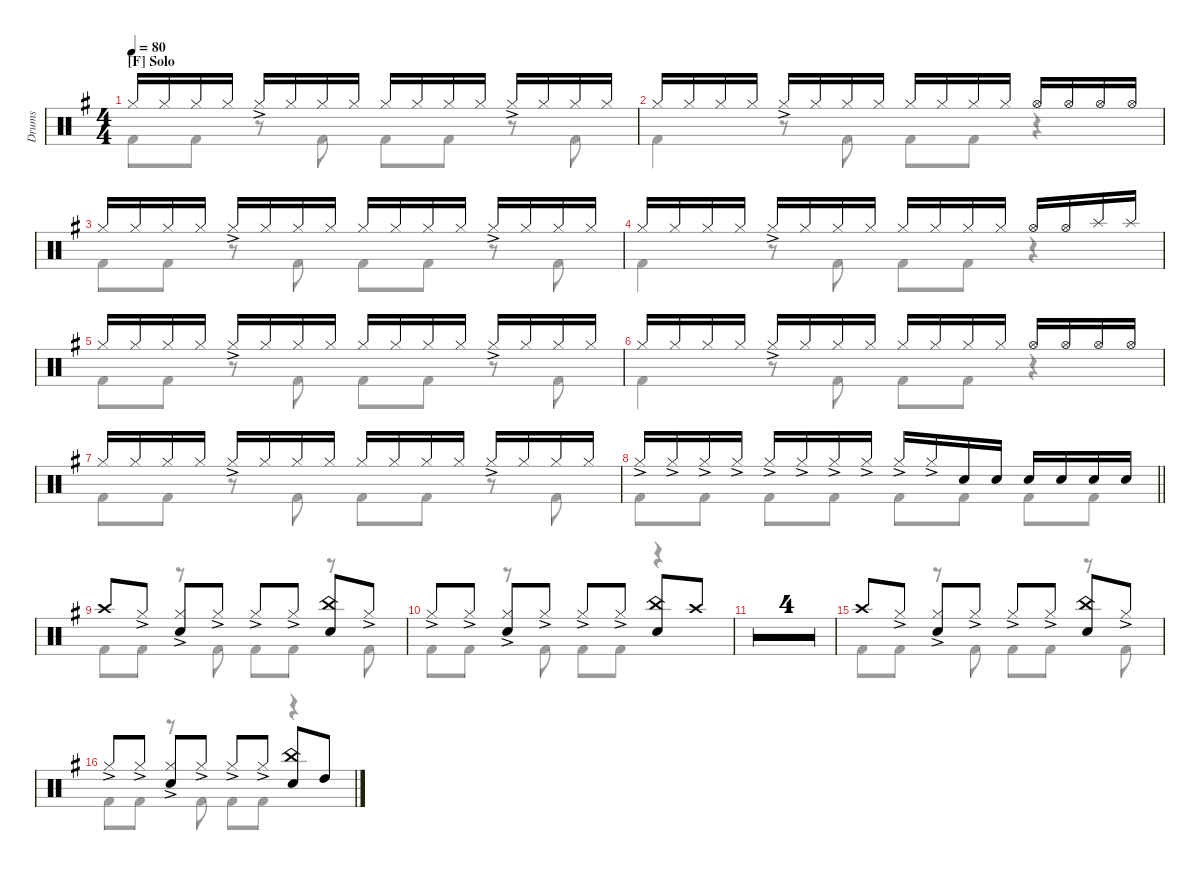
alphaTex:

\hideDynamics
\bracketExtendMode nobrackets
\otherSystemsTrackNameOrientation horizontal
\track ("Drums" "Drums") {defaultSystemsLayout 4 multiBarRest instrument percussion}
\staff {score}
\articulation defaults
\voice
\ts (4 4)
\section ("F" "Solo")
\tempo 80
\clef neutral
\ks g "Hi-Hat (closed)"{acc forcenatural}.16{dy f beam Up} "Hi-Hat (closed)"{acc forcenatural}.16{beam Up} "Hi-Hat (closed)"{acc forcenatural}.16{beam Up} "Hi-Hat (closed)"{acc forcenatural}.16{beam Up} "Hi-Hat (closed)"{ac acc forcenatural}.16{beam Up} "Hi-Hat (closed)"{acc forcenatural}.16{beam Up} "Hi-Hat (closed)"{acc forcenatural}.16{beam Up} "Hi-Hat (closed)"{acc forcenatural}.16{beam Up} "Hi-Hat (closed)"{acc forcenatural}.16{beam Up} "Hi-Hat (closed)"{acc forcenatural}.16{beam Up} "Hi-Hat (closed)"{acc forcenatural}.16{beam Up} "Hi-Hat (closed)"{acc forcenatural}.16{beam Up} "Hi-Hat (closed)"{ac acc forcenatural}.16{beam Up} "Hi-Hat (closed)"{acc forcenatural}.16{beam Up} "Hi-Hat (closed)"{acc forcenatural}.16{beam Up} "Hi-Hat (closed)"{acc forcenatural}.16{beam Up}
|
"Hi-Hat (closed)"{acc forcenatural}.16{beam Up} "Hi-Hat (closed)"{acc forcenatural}.16{beam Up} "Hi-Hat (closed)"{acc forcenatural}.16{beam Up} "Hi-Hat (closed)"{acc forcenatural}.16{beam Up} "Hi-Hat (closed)"{ac acc forcenatural}.16{beam Up} "Hi-Hat (closed)"{acc forcenatural}.16{beam Up} "Hi-Hat (closed)"{acc forcenatural}.16{beam Up} "Hi-Hat (closed)"{acc forcenatural}.16{beam Up} "Hi-Hat (closed)"{acc forcenatural}.16{beam Up} "Hi-Hat (closed)"{acc forcenatural}.16{beam Up} "Hi-Hat (closed)"{acc forcenatural}.16{beam Up} "Hi-Hat (closed)"{acc forcenatural}.16{beam Up} "Hi-Hat (open)"{acc forcenatural}.16{beam Up} "Hi-Hat (open)"{acc forcenatural}.16{beam Up} "Hi-Hat (open)"{acc forcenatural}.16{beam Up} "Hi-Hat (open)"{acc forcenatural}.16{beam Up} |
"Hi-Hat (closed)"{acc forcenatural}.16{beam Up} "Hi-Hat (closed)"{acc forcenatural}.16{beam Up} "Hi-Hat (closed)"{acc forcenatural}.16{beam Up} "Hi-Hat (closed)"{acc forcenatural}.16{beam Up} "Hi-Hat (closed)"{ac acc forcenatural}.16{beam Up} "Hi-Hat (closed)"{acc forcenatural}.16{beam Up} "Hi-Hat (closed)"{acc forcenatural}.16{beam Up} "Hi-Hat (closed)"{acc forcenatural}.16{beam Up} "Hi-Hat (closed)"{acc forcenatural}.16{beam Up} "Hi-Hat (closed)"{acc forcenatural}.16{beam Up} "Hi-Hat (closed)"{acc forcenatural}.16{beam Up} "Hi-Hat (closed)"{acc forcenatural}.16{beam Up} "Hi-Hat (closed)"{ac acc forcenatural}.16{beam Up} "Hi-Hat (closed)"{acc forcenatural}.16{beam Up} "Hi-Hat (closed)"{acc forcenatural}.16{beam Up} "Hi-Hat (closed)"{acc forcenatural}.16{beam Up} |
"Hi-Hat (closed)"{acc forcenatural}.16{beam Up} "Hi-Hat (closed)"{acc forcenatural}.16{beam Up} "Hi-Hat (closed)"{acc forcenatural}.16{beam Up} "Hi-Hat (closed)"{acc forcenatural}.16{beam Up} "Hi-Hat (closed)"{ac acc forcenatural}.16{beam Up} "Hi-Hat (closed)"{acc forcenatural}.16{beam Up} "Hi-Hat (closed)"{acc forcenatural}.16{beam Up} "Hi-Hat (closed)"{acc forcenatural}.16{beam Up} "Hi-Hat (closed)"{acc forcenatural}.16{beam Up} "Hi-Hat (closed)"{acc forcenatural}.16{beam Up} "Hi-Hat (closed)"{acc forcenatural}.16{beam Up} "Hi-Hat (closed)"{acc forcenatural}.16{beam Up} "Hi-Hat (open)"{acc forcenatural}.16{beam Up} "Hi-Hat (open)"{acc forcenatural}.16{beam Up} "Splash (hit)"{acc forcenatural}.16{beam Up} "Splash (hit)"{acc forcenatural}.16{beam Up} |
"Hi-Hat (closed)"{acc forcenatural}.16{beam Up} "Hi-Hat (closed)"{acc forcenatural}.16{beam Up} "Hi-Hat (closed)"{acc forcenatural}.16{beam Up} "Hi-Hat (closed)"{acc forcenatural}.16{beam Up} "Hi-Hat (closed)"{ac acc forcenatural}.16{beam Up} "Hi-Hat (closed)"{acc forcenatural}.16{beam Up} "Hi-Hat (closed)"{acc forcenatural}.16{beam Up} "Hi-Hat (closed)"{acc forcenatural}.16{beam Up} "Hi-Hat (closed)"{acc forcenatural}.16{beam Up} "Hi-Hat (closed)"{acc forcenatural}.16{beam Up} "Hi-Hat (closed)"{acc forcenatural}.16{beam Up} "Hi-Hat (closed)"{acc forcenatural}.16{beam Up} "Hi-Hat (closed)"{ac acc forcenatural}.16{beam Up} "Hi-Hat (closed)"{acc forcenatural}.16{beam Up} "Hi-Hat (closed)"{acc forcenatural}.16{beam Up} "Hi-Hat (closed)"{acc forcenatural}.16{beam Up} |
"Hi-Hat (closed)"{acc forcenatural}.16{beam Up} "Hi-Hat (closed)"{acc forcenatural}.16{beam Up} "Hi-Hat (closed)"{acc forcenatural}.16{beam Up} "Hi-Hat (closed)"{acc forcenatural}.16{beam Up} "Hi-Hat (closed)"{ac acc forcenatural}.16{beam Up} "Hi-Hat (closed)"{acc forcenatural}.16{beam Up} "Hi-Hat (closed)"{acc forcenatural}.16{beam Up} "Hi-Hat (closed)"{acc forcenatural}.16{beam Up} "Hi-Hat (closed)"{acc forcenatural}.16{beam Up} "Hi-Hat (closed)"{acc forcenatural}.16{beam Up} "Hi-Hat (closed)"{acc forcenatural}.16{beam Up} "Hi-Hat (closed)"{acc forcenatural}.16{beam Up} "Hi-Hat (open)"{acc forcenatural}.16{beam Up} "Hi-Hat (open)"{acc forcenatural}.16{beam Up} "Hi-Hat (open)"{acc forcenatural}.16{beam Up} "Hi-Hat (open)"{acc forcenatural}.16{beam Up} |
"Hi-Hat (closed)"{acc forcenatural}.16{beam Up} "Hi-Hat (closed)"{acc forcenatural}.16{beam Up} "Hi-Hat (closed)"{acc forcenatural}.16{beam Up} "Hi-Hat (closed)"{acc forcenatural}.16{beam Up} "Hi-Hat (closed)"{ac acc forcenatural}.16{beam Up} "Hi-Hat (closed)"{acc forcenatural}.16{beam Up} "Hi-Hat (closed)"{acc forcenatural}.16{beam Up} "Hi-Hat (closed)"{acc forcenatural}.16{beam Up} "Hi-Hat (closed)"{acc forcenatural}.16{beam Up} "Hi-Hat (closed)"{acc forcenatural}.16{beam Up} "Hi-Hat (closed)"{acc forcenatural}.16{beam Up} "Hi-Hat (closed)"{acc forcenatural}.16{beam Up} "Hi-Hat (closed)"{ac acc forcenatural}.16{beam Up} "Hi-Hat (closed)"{acc forcenatural}.16{beam Up} "Hi-Hat (closed)"{acc forcenatural}.16{beam Up} "Hi-Hat (closed)"{acc forcenatural}.16{beam Up} |
\barLineRight lightlight "Hi-Hat (closed)"{ac acc forcenatural}.16{beam Up} "Hi-Hat (closed)"{ac acc forcenatural}.16{beam Up} "Hi-Hat (closed)"{ac acc forcenatural}.16{beam Up} "Hi-Hat (closed)"{ac acc forcenatural}.16{beam Up} "Hi-Hat (closed)"{ac acc forcenatural}.16{beam Up} "Hi-Hat (closed)"{ac acc forcenatural}.16{beam Up} "Hi-Hat (closed)"{ac acc forcenatural}.16{beam Up} "Hi-Hat (closed)"{ac acc forcenatural}.16{beam Up} "Hi-Hat (closed)"{ac acc forcenatural}.16{beam Up} "Hi-Hat (closed)"{ac acc forcenatural}.16{beam Up} "Snare (hit) 2"{acc forcenatural}.16{beam Up} "Snare (hit) 2"{acc forcenatural}.16{beam Up} "Snare (hit) 2"{acc forcenatural}.16{beam Up} "Snare (hit) 2"{acc forcenatural}.16{beam Up} "Snare (hit) 2"{acc forcenatural}.16{beam Up} "Snare (hit) 2"{acc forcenatural}.16{beam Up}
|
"Crash high (hit)"{acc forcenatural}.8{beam Up} "Hi-Hat (closed)"{ac acc forcenatural}.8{beam Up} ("Hi-Hat (closed)"{ac acc forcenatural} "Snare (hit) 2"{acc forcenatural}).8{beam Up} "Hi-Hat (closed)"{ac acc forcenatural}.8{beam Up} "Hi-Hat (closed)"{ac acc forcenatural}.8{beam Up} "Hi-Hat (closed)"{ac acc forcenatural}.8{beam Up} ("China (hit)"{acc forcenatural} "Snare (hit) 2"{acc forcenatural}).8{beam Up} "Hi-Hat (closed)"{ac acc forcenatural}.8{beam Up} |
"Hi-Hat (closed)"{ac acc forcenatural}.8{beam Up} "Hi-Hat (closed)"{ac acc forcenatural}.8{beam Up} ("Hi-Hat (closed)"{ac acc forcenatural} "Snare (hit) 2"{acc forcenatural}).8{beam Up} "Hi-Hat (closed)"{ac acc forcenatural}.8{beam Up} "Hi-Hat (closed)"{ac acc forcenatural}.8{beam Up} "Hi-Hat (closed)"{ac acc forcenatural}.8{beam Up} ("China (hit)"{acc forcenatural} "Snare (hit) 2"{acc forcenatural}).8{beam Up} "Crash high (hit)"{acc forcenatural}.8{beam Up} |
\simile firstofdouble
|
\simile secondofdouble
|
\simile firstofdouble
|
\simile secondofdouble
|
\simile none "Crash high (hit)"{acc forcenatural}.8{beam Up} "Hi-Hat (closed)"{ac acc forcenatural}.8{beam Up}
("Hi-Hat (closed)"{ac acc forcenatural} "Snare (hit) 2"{acc forcenatural}).8{beam Up} "Hi-Hat (closed)"{ac acc forcenatural}.8{beam Up} "Hi-Hat (closed)"{ac acc forcenatural}.8{beam Up} "Hi-Hat (closed)"{ac acc forcenatural}.8{beam Up} ("China (hit)"{acc forcenatural} "Snare (hit) 2"{acc forcenatural}).8{beam Up} "Hi-Hat (closed)"{ac acc forcenatural}.8{beam Up} |
"Hi-Hat (closed)"{ac acc forcenatural}.8{beam Up} "Hi-Hat (closed)"{ac acc forcenatural}.8{beam Up} ("Hi-Hat (closed)"{ac acc forcenatural} "Snare (hit) 2"{acc forcenatural}).8{beam Up} "Hi-Hat (closed)"{ac acc forcenatural}.8{beam Up} "Hi-Hat (closed)"{ac acc forcenatural}.8{beam Up} "Hi-Hat (closed)"{ac acc forcenatural}.8{beam Up} ("China (hit)"{acc forcenatural} "Snare (hit) 2"{acc forcenatural}).8{beam Up} "High Tom (hit)"{acc forcenatural}.8{beam Up}
\voice
\clef neutral
\ottava regular
\simile none
\ks g "Kick (hit) 2"{acc forcenatural}.8{dy mf beam Down} "Kick (hit) 2"{acc forcenatural}.8{beam Down}
r.8{beam Down} "Kick (hit) 2"{acc forcenatural}.8{beam Down} "Kick (hit) 2"{acc forcenatural}.8{beam Down} "Kick (hit) 2"{acc forcenatural}.8{beam Down} r.8{beam Down} "Kick (hit) 2"{acc forcenatural}.8{beam Down} |
"Kick (hit) 2"{acc forcenatural}.4{beam Down} r.8{beam Down} "Kick (hit) 2"{acc forcenatural}.8{beam Down} "Kick (hit) 2"{acc forcenatural}.8{beam Down} "Kick (hit) 2"{acc forcenatural}.8{beam Down} r.4{beam Down} |
"Kick (hit) 2"{acc forcenatural}.8{beam Down} "Kick (hit) 2"{acc forcenatural}.8{beam Down} r.8{beam Down} "Kick (hit) 2"{acc forcenatural}.8{beam Down} "Kick (hit) 2"{acc forcenatural}.8{beam Down} "Kick (hit) 2"{acc forcenatural}.8{beam Down} r.8{beam Down} "Kick (hit) 2"{acc forcenatural}.8{beam Down} |
"Kick (hit) 2"{acc forcenatural}.4{beam Down} r.8{beam Down} "Kick (hit) 2"{acc forcenatural}.8{beam Down} "Kick (hit) 2"{acc forcenatural}.8{beam Down} "Kick (hit) 2"{acc forcenatural}.8{beam Down} r.4{beam Down} |
"Kick (hit) 2"{acc forcenatural}.8{beam Down} "Kick (hit) 2"{acc forcenatural}.8{beam Down} r.8{beam Down} "Kick (hit) 2"{acc forcenatural}.8{beam Down} "Kick (hit) 2"{acc forcenatural}.8{beam Down} "Kick (hit) 2"{acc forcenatural}.8{beam Down} r.8{beam Down} "Kick (hit) 2"{acc forcenatural}.8{beam Down} |
"Kick (hit) 2"{acc forcenatural}.4{beam Down} r.8{beam Down} "Kick (hit) 2"{acc forcenatural}.8{beam Down} "Kick (hit) 2"{acc forcenatural}.8{beam Down} "Kick (hit) 2"{acc forcenatural}.8{beam Down} r.4{beam Down} |
"Kick (hit) 2"{acc forcenatural}.8{beam Down} "Kick (hit) 2"{acc forcenatural}.8{beam Down} r.8{beam Down} "Kick (hit) 2"{acc forcenatural}.8{beam Down} "Kick (hit) 2"{acc forcenatural}.8{beam Down} "Kick (hit) 2"{acc forcenatural}.8{beam Down} r.8{beam Down} "Kick (hit) 2"{acc forcenatural}.8{beam Down} |
\barLineRight lightlight "Kick (hit) 2"{acc forcenatural}.8{beam Down} "Kick (hit) 2"{acc forcenatural}.8{beam Down} "Kick (hit) 2"{acc forcenatural}.8{beam Down} "Kick (hit) 2"{acc forcenatural}.8{beam Down} "Kick (hit) 2"{acc forcenatural}.8{beam Down} "Kick (hit) 2"{acc forcenatural}.8{beam Down} "Kick (hit) 2"{acc forcenatural}.8{beam Down} "Kick (hit) 2"{acc forcenatural}.8{beam Down}
|
"Kick (hit) 2"{acc forcenatural}.8{beam Down} "Kick (hit) 2"{acc forcenatural}.8{beam Down} r.8{beam Down} "Kick (hit) 2"{acc forcenatural}.8{beam Down} "Kick (hit) 2"{acc forcenatural}.8{beam Down} "Kick (hit) 2"{acc forcenatural}.8{beam Down} r.8{beam Down} "Kick (hit) 2"{acc forcenatural}.8{beam Down} |
"Kick (hit) 2"{acc forcenatural}.8{beam Down} "Kick (hit) 2"{acc forcenatural}.8{beam Down} r.8{beam Down} "Kick (hit) 2"{acc forcenatural}.8{beam Down} "Kick (hit) 2"{acc forcenatural}.8{beam Down} "Kick (hit) 2"{acc forcenatural}.8{beam Down} r.4{beam Down} |
\simile firstofdouble
|
\simile secondofdouble
|
\simile firstofdouble
|
\simile secondofdouble
|
\simile none "Kick (hit) 2"{acc forcenatural}.8{beam Down} "Kick (hit) 2"{acc forcenatural}.8{beam Down}
r.8{beam Down} "Kick (hit) 2"{acc forcenatural}.8{beam Down} "Kick (hit) 2"{acc forcenatural}.8{beam Down} "Kick (hit) 2"{acc forcenatural}.8{beam Down} r.8{beam Down} "Kick (hit) 2"{acc forcenatural}.8{beam Down} |
"Kick (hit) 2"{acc forcenatural}.8{beam Down} "Kick (hit) 2"{acc forcenatural}.8{beam Down} r.8{beam Down} "Kick (hit) 2"{acc forcenatural}.8{beam Down} "Kick (hit) 2"{acc forcenatural}.8{beam Down} "Kick (hit) 2"{acc forcenatural}.8{beam Down} r.4{beam Down}
